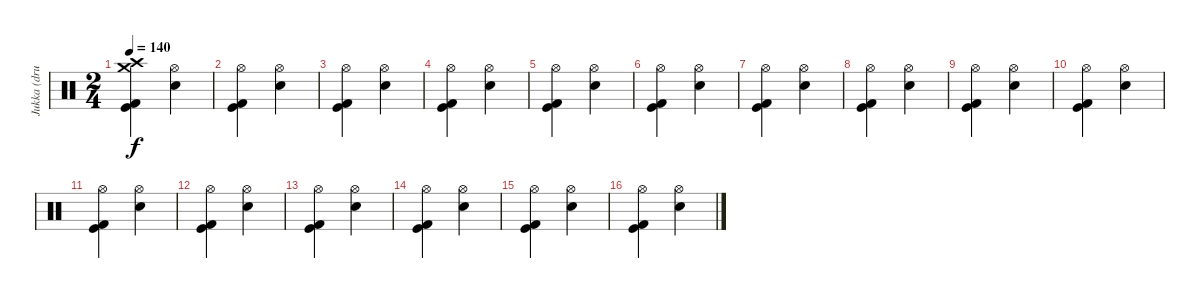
\track ("Jukka (drums)" "Jukka (dru") {instrument percussion}
\staff {score}
\articulation defaults
\ts (2 4)
\tempo 140
\clef neutral
\ks c
("Kick (hit)" "Kick (hit) 2" "Crash high (hit)" "Crash medium (hit)").4{dy f} ("Electric Snare (hit)" "Hi-Hat (open)").4 |
("Kick (hit)" "Kick (hit) 2" "Hi-Hat (open)").4 ("Electric Snare (hit)" "Hi-Hat (open)").4 |
("Kick (hit)" "Kick (hit) 2" "Hi-Hat (open)").4 ("Electric Snare (hit)" "Hi-Hat (open)").4 |
("Kick (hit)" "Kick (hit) 2" "Hi-Hat (open)").4 ("Electric Snare (hit)" "Hi-Hat (open)").4 |
("Kick (hit)" "Kick (hit) 2" "Hi-Hat (open)").4 ("Electric Snare (hit)" "Hi-Hat (open)").4 |
("Kick (hit)" "Kick (hit) 2" "Hi-Hat (open)").4 ("Electric Snare (hit)" "Hi-Hat (open)").4 |
("Kick (hit)" "Kick (hit) 2" "Hi-Hat (open)").4 ("Electric Snare (hit)" "Hi-Hat (open)").4 |
("Kick (hit)" "Kick (hit) 2" "Hi-Hat (open)").4 ("Electric Snare (hit)" "Hi-Hat (open)").4 |
("Kick (hit)" "Kick (hit) 2" "Hi-Hat (open)").4 ("Electric Snare (hit)" "Hi-Hat (open)").4 |
("Kick (hit)" "Kick (hit) 2" "Hi-Hat (open)").4 ("Electric Snare (hit)" "Hi-Hat (open)").4 |
("Kick (hit)" "Kick (hit) 2" "Hi-Hat (open)").4 ("Electric Snare (hit)" "Hi-Hat (open)").4 |
("Kick (hit)" "Kick (hit) 2" "Hi-Hat (open)").4 ("Electric Snare (hit)" "Hi-Hat (open)").4 |
("Kick (hit)" "Kick (hit) 2" "Hi-Hat (open)").4 ("Electric Snare (hit)" "Hi-Hat (open)").4 |
("Kick (hit)" "Kick (hit) 2" "Hi-Hat (open)").4 ("Electric Snare (hit)" "Hi-Hat (open)").4 |
("Kick (hit)" "Kick (hit) 2" "Hi-Hat (open)").4 ("Electric Snare (hit)" "Hi-Hat (open)").4 |
("Kick (hit)" "Kick (hit) 2" "Hi-Hat (open)").4 ("Electric Snare (hit)" "Hi-Hat (open)").4
